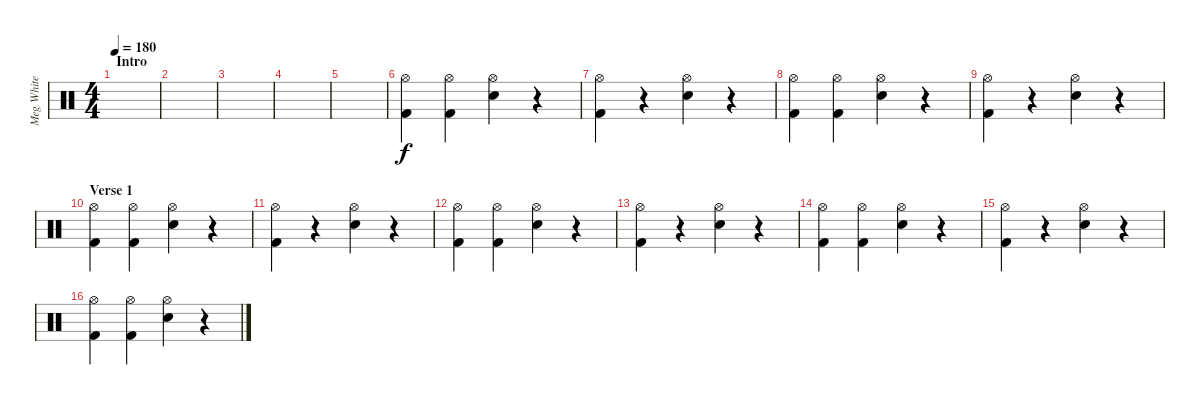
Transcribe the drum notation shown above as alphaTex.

\track ("Meg White" "Meg White") {instrument percussion}
\staff {score}
\articulation defaults
\ts (4 4)
\section ("" "Intro")
\tempo 180
\clef neutral
\ks c
|
|
|
|
|
("Hi-Hat (open)" "Kick (hit) 2").4 ("Hi-Hat (open)" "Kick (hit) 2").4 ("Hi-Hat (open)" "Snare (hit) 2").4 r.4 |
("Hi-Hat (open)" "Kick (hit) 2").4 r.4 ("Hi-Hat (open)" "Snare (hit) 2").4 r.4 |
("Hi-Hat (open)" "Kick (hit) 2").4 ("Hi-Hat (open)" "Kick (hit) 2").4 ("Hi-Hat (open)" "Snare (hit) 2").4 r.4 |
("Hi-Hat (open)" "Kick (hit) 2").4 r.4 ("Hi-Hat (open)" "Snare (hit) 2").4 r.4 |
\section ("" "Verse 1")
("Hi-Hat (open)" "Kick (hit) 2").4 ("Hi-Hat (open)" "Kick (hit) 2").4 ("Hi-Hat (open)" "Snare (hit) 2").4 r.4 |
("Hi-Hat (open)" "Kick (hit) 2").4 r.4 ("Hi-Hat (open)" "Snare (hit) 2").4 r.4 |
("Hi-Hat (open)" "Kick (hit) 2").4 ("Hi-Hat (open)" "Kick (hit) 2").4 ("Hi-Hat (open)" "Snare (hit) 2").4 r.4 |
("Hi-Hat (open)" "Kick (hit) 2").4 r.4 ("Hi-Hat (open)" "Snare (hit) 2").4 r.4 |
("Hi-Hat (open)" "Kick (hit) 2").4 ("Hi-Hat (open)" "Kick (hit) 2").4 ("Hi-Hat (open)" "Snare (hit) 2").4 r.4 |
("Hi-Hat (open)" "Kick (hit) 2").4 r.4 ("Hi-Hat (open)" "Snare (hit) 2").4 r.4 |
("Hi-Hat (open)" "Kick (hit) 2").4 ("Hi-Hat (open)" "Kick (hit) 2").4 ("Hi-Hat (open)" "Snare (hit) 2").4 r.4
